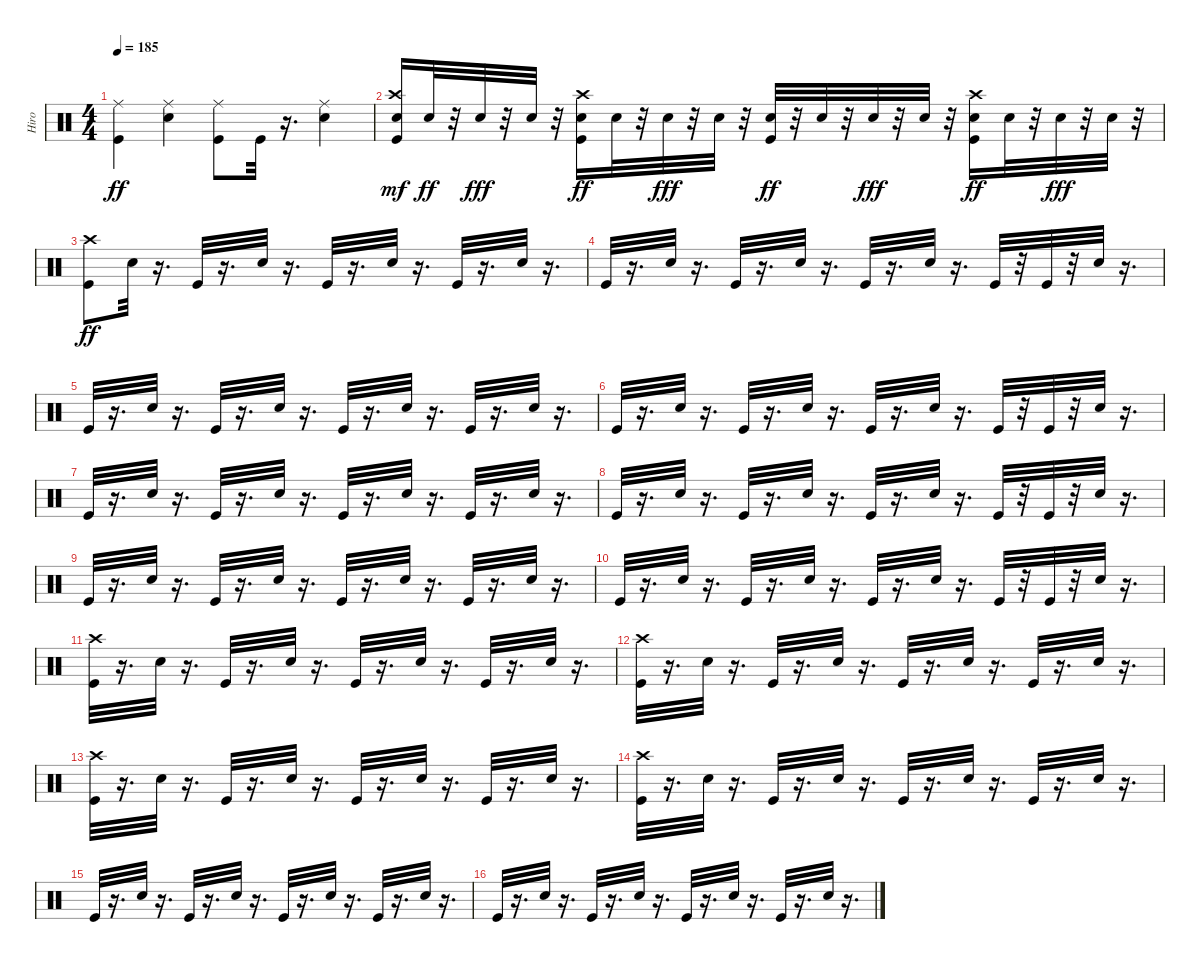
\track ("Hiro" "Hiro") {instrument percussion}
\staff {score}
\articulation defaults
\ts (4 4)
\tempo 185
\clef neutral
\ks c
("Kick (hit)" "Ride (middle)").4{dy ff} ("Electric Snare (hit)" "Ride (middle)").4 ("Kick (hit)" "Ride (middle)").8 "Kick (hit)".32 r.16{d} ("Electric Snare (hit)" "Ride (middle)").4 |
("Crash high (hit)" "Kick (hit)" "Snare (hit) 2").16{dy mf} "Electric Snare (hit)".32{dy ff} r.32 "Snare (hit) 2".32{dy fff} r.32 "Snare (hit) 2".32 r.32 ("Crash high (hit)" "Electric Snare (hit)" "Kick (hit)").16{dy ff} "Electric Snare (hit)".32 r.32 "Snare (hit) 2".32{dy fff} r.32 "Snare (hit) 2".32 r.32 ("Snare (hit) 2" "Kick (hit)").32{dy ff} r.32 "Electric Snare (hit)".32 r.32 "Snare (hit) 2".32{dy fff} r.32 "Snare (hit) 2".32 r.32 ("Crash high (hit)" "Electric Snare (hit)" "Kick (hit)").16{dy ff} "Electric Snare (hit)".32 r.32 "Snare (hit) 2".32{dy fff} r.32 "Snare (hit) 2".32 r.32 |
("Crash high (hit)" "Kick (hit)").8{dy ff} "Electric Snare (hit)".32 r.16{d} "Kick (hit)".32 r.16{d} "Electric Snare (hit)".32 r.16{d} "Kick (hit)".32 r.16{d} "Electric Snare (hit)".32 r.16{d} "Kick (hit)".32 r.16{d} "Electric Snare (hit)".32 r.16{d} |
"Kick (hit)".32 r.16{d} "Electric Snare (hit)".32 r.16{d} "Kick (hit)".32 r.16{d} "Electric Snare (hit)".32 r.16{d} "Kick (hit)".32 r.16{d} "Electric Snare (hit)".32 r.16{d} "Kick (hit)".32 r.32 "Kick (hit)".32 r.32 "Electric Snare (hit)".32 r.16{d} |
"Kick (hit)".32 r.16{d} "Electric Snare (hit)".32 r.16{d} "Kick (hit)".32 r.16{d} "Electric Snare (hit)".32 r.16{d} "Kick (hit)".32 r.16{d} "Electric Snare (hit)".32 r.16{d} "Kick (hit)".32 r.16{d} "Electric Snare (hit)".32 r.16{d} |
"Kick (hit)".32 r.16{d} "Electric Snare (hit)".32 r.16{d} "Kick (hit)".32 r.16{d} "Electric Snare (hit)".32 r.16{d} "Kick (hit)".32 r.16{d} "Electric Snare (hit)".32 r.16{d} "Kick (hit)".32 r.32 "Kick (hit)".32 r.32 "Electric Snare (hit)".32 r.16{d} |
"Kick (hit)".32 r.16{d} "Electric Snare (hit)".32 r.16{d} "Kick (hit)".32 r.16{d} "Electric Snare (hit)".32 r.16{d} "Kick (hit)".32 r.16{d} "Electric Snare (hit)".32 r.16{d} "Kick (hit)".32 r.16{d} "Electric Snare (hit)".32 r.16{d} |
"Kick (hit)".32 r.16{d} "Electric Snare (hit)".32 r.16{d} "Kick (hit)".32 r.16{d} "Electric Snare (hit)".32 r.16{d} "Kick (hit)".32 r.16{d} "Electric Snare (hit)".32 r.16{d} "Kick (hit)".32 r.32 "Kick (hit)".32 r.32 "Electric Snare (hit)".32 r.16{d} |
"Kick (hit)".32 r.16{d} "Electric Snare (hit)".32 r.16{d} "Kick (hit)".32 r.16{d} "Electric Snare (hit)".32 r.16{d} "Kick (hit)".32 r.16{d} "Electric Snare (hit)".32 r.16{d} "Kick (hit)".32 r.16{d} "Electric Snare (hit)".32 r.16{d} |
"Kick (hit)".32 r.16{d} "Electric Snare (hit)".32 r.16{d} "Kick (hit)".32 r.16{d} "Electric Snare (hit)".32 r.16{d} "Kick (hit)".32 r.16{d} "Electric Snare (hit)".32 r.16{d} "Kick (hit)".32 r.32 "Kick (hit)".32 r.32 "Electric Snare (hit)".32 r.16{d} |
("Crash high (hit)" "Kick (hit)").32 r.16{d} "Electric Snare (hit)".32 r.16{d} "Kick (hit)".32 r.16{d} "Electric Snare (hit)".32 r.16{d} "Kick (hit)".32 r.16{d} "Electric Snare (hit)".32 r.16{d} "Kick (hit)".32 r.16{d} "Electric Snare (hit)".32 r.16{d} |
("Crash high (hit)" "Kick (hit)").32 r.16{d} "Electric Snare (hit)".32 r.16{d} "Kick (hit)".32 r.16{d} "Electric Snare (hit)".32 r.16{d} "Kick (hit)".32 r.16{d} "Electric Snare (hit)".32 r.16{d} "Kick (hit)".32 r.16{d} "Electric Snare (hit)".32 r.16{d} |
("Crash high (hit)" "Kick (hit)").32 r.16{d} "Electric Snare (hit)".32 r.16{d} "Kick (hit)".32 r.16{d} "Electric Snare (hit)".32 r.16{d} "Kick (hit)".32 r.16{d} "Electric Snare (hit)".32 r.16{d} "Kick (hit)".32 r.16{d} "Electric Snare (hit)".32 r.16{d} |
("Crash high (hit)" "Kick (hit)").32 r.16{d} "Electric Snare (hit)".32 r.16{d} "Kick (hit)".32 r.16{d} "Electric Snare (hit)".32 r.16{d} "Kick (hit)".32 r.16{d} "Electric Snare (hit)".32 r.16{d} "Kick (hit)".32 r.16{d} "Electric Snare (hit)".32 r.16{d} |
"Kick (hit)".32 r.16{d} "Electric Snare (hit)".32 r.16{d} "Kick (hit)".32 r.16{d} "Electric Snare (hit)".32 r.16{d} "Kick (hit)".32 r.16{d} "Electric Snare (hit)".32 r.16{d} "Kick (hit)".32 r.16{d} "Electric Snare (hit)".32 r.16{d} |
"Kick (hit)".32 r.16{d} "Electric Snare (hit)".32 r.16{d} "Kick (hit)".32 r.16{d} "Electric Snare (hit)".32 r.16{d} "Kick (hit)".32 r.16{d} "Electric Snare (hit)".32 r.16{d} "Kick (hit)".32 r.16{d} "Electric Snare (hit)".32 r.16{d}
